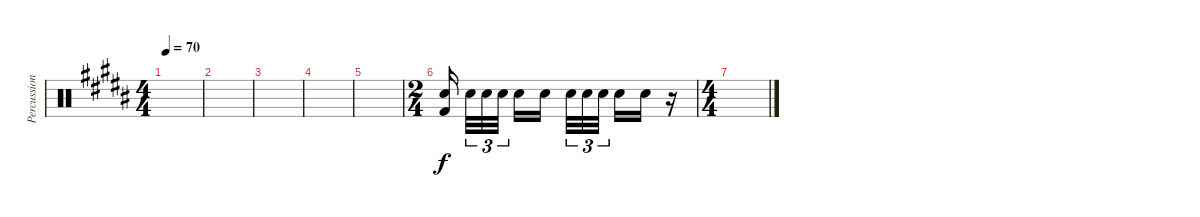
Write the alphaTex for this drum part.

\track ("Percussion" "Percussion") {instrument percussion}
\staff {score}
\articulation defaults
\ts (4 4)
\tempo 70
\clef neutral
\ks b
|
|
|
|
|
\ts (2 4)
("Electric Snare (hit)" "Kick (hit) 2").16{beam splitsecondary} "Snare (hit) 2".32{tu (3 2)} "Snare (hit) 2".32{tu (3 2)} "Snare (hit) 2".32{tu (3 2) beam splitsecondary} "Snare (hit) 2".16 "Snare (hit) 2".16 "Snare (hit) 2".32{tu (3 2)} "Snare (hit) 2".32{tu (3 2)} "Snare (hit) 2".32{tu (3 2) beam splitsecondary} "Snare (hit) 2".16 "Snare (hit) 2".16 r.16 |
\ts (4 4)
